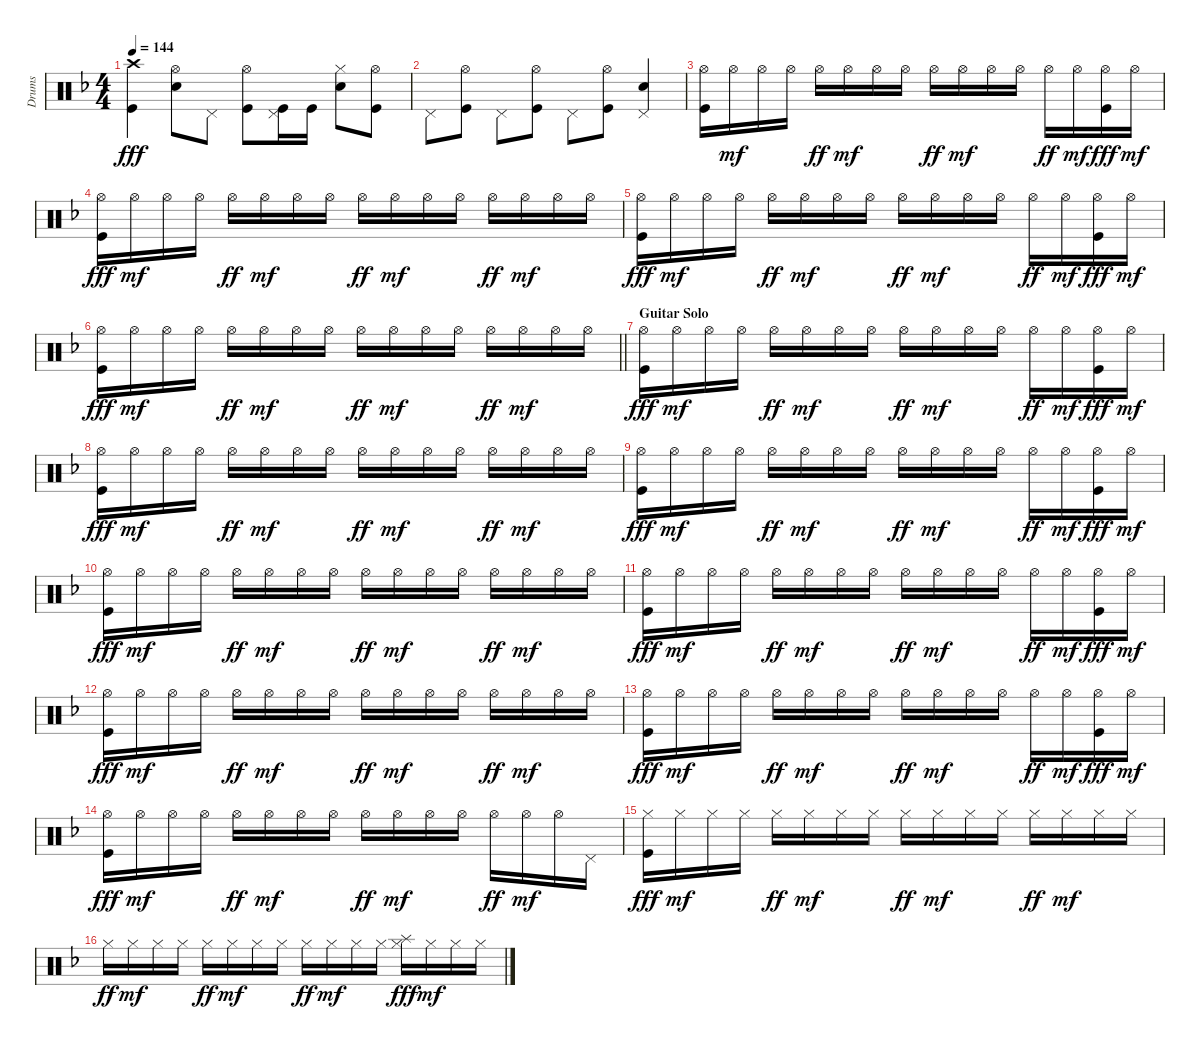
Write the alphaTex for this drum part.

\track ("Drums" "Drums") {instrument percussion}
\staff {score}
\articulation defaults
\ts (4 4)
\tempo 144
\clef neutral
\ks f
("Crash high (hit)" "Kick (hit)").4{dy fff} ("Hi-Hat (open)" "Snare (hit) 2").8 "Pedal Hi-Hat (hit)".8 ("Hi-Hat (open)" "Kick (hit)").8 ("Pedal Hi-Hat (hit)" "Kick (hit)").16 "Kick (hit)".16 ("Hi-Hat (closed)" "Snare (hit) 2").8 ("Hi-Hat (open)" "Kick (hit)").8 |
"Pedal Hi-Hat (hit)".8 ("Hi-Hat (open)" "Kick (hit)").8 "Pedal Hi-Hat (hit)".8 ("Hi-Hat (open)" "Kick (hit)").8 "Pedal Hi-Hat (hit)".8 ("Hi-Hat (open)" "Kick (hit)").8 ("Pedal Hi-Hat (hit)" "Snare (hit) 2").4 |
("Hi-Hat (open)" "Kick (hit)").16 "Hi-Hat (open)".16{dy mf} "Hi-Hat (open)".16 "Hi-Hat (open)".16 "Hi-Hat (open)".16{dy ff} "Hi-Hat (open)".16{dy mf} "Hi-Hat (open)".16 "Hi-Hat (open)".16 "Hi-Hat (open)".16{dy ff} "Hi-Hat (open)".16{dy mf} "Hi-Hat (open)".16 "Hi-Hat (open)".16 "Hi-Hat (open)".16{dy ff} "Hi-Hat (open)".16{dy mf} ("Hi-Hat (open)" "Kick (hit)").16{dy fff} "Hi-Hat (open)".16{dy mf} |
("Hi-Hat (open)" "Kick (hit)").16{dy fff} "Hi-Hat (open)".16{dy mf} "Hi-Hat (open)".16 "Hi-Hat (open)".16 "Hi-Hat (open)".16{dy ff} "Hi-Hat (open)".16{dy mf} "Hi-Hat (open)".16 "Hi-Hat (open)".16 "Hi-Hat (open)".16{dy ff} "Hi-Hat (open)".16{dy mf} "Hi-Hat (open)".16 "Hi-Hat (open)".16 "Hi-Hat (open)".16{dy ff} "Hi-Hat (open)".16{dy mf} "Hi-Hat (open)".16 "Hi-Hat (open)".16 |
("Hi-Hat (open)" "Kick (hit)").16{dy fff} "Hi-Hat (open)".16{dy mf} "Hi-Hat (open)".16 "Hi-Hat (open)".16 "Hi-Hat (open)".16{dy ff} "Hi-Hat (open)".16{dy mf} "Hi-Hat (open)".16 "Hi-Hat (open)".16 "Hi-Hat (open)".16{dy ff} "Hi-Hat (open)".16{dy mf} "Hi-Hat (open)".16 "Hi-Hat (open)".16 "Hi-Hat (open)".16{dy ff} "Hi-Hat (open)".16{dy mf} ("Hi-Hat (open)" "Kick (hit)").16{dy fff} "Hi-Hat (open)".16{dy mf} |
\barLineRight lightlight
("Hi-Hat (open)" "Kick (hit)").16{dy fff} "Hi-Hat (open)".16{dy mf} "Hi-Hat (open)".16 "Hi-Hat (open)".16 "Hi-Hat (open)".16{dy ff} "Hi-Hat (open)".16{dy mf} "Hi-Hat (open)".16 "Hi-Hat (open)".16 "Hi-Hat (open)".16{dy ff} "Hi-Hat (open)".16{dy mf} "Hi-Hat (open)".16 "Hi-Hat (open)".16 "Hi-Hat (open)".16{dy ff} "Hi-Hat (open)".16{dy mf} "Hi-Hat (open)".16 "Hi-Hat (open)".16 |
\section ("" "Guitar Solo")
("Hi-Hat (open)" "Kick (hit)").16{dy fff} "Hi-Hat (open)".16{dy mf} "Hi-Hat (open)".16 "Hi-Hat (open)".16 "Hi-Hat (open)".16{dy ff} "Hi-Hat (open)".16{dy mf} "Hi-Hat (open)".16 "Hi-Hat (open)".16 "Hi-Hat (open)".16{dy ff} "Hi-Hat (open)".16{dy mf} "Hi-Hat (open)".16 "Hi-Hat (open)".16 "Hi-Hat (open)".16{dy ff} "Hi-Hat (open)".16{dy mf} ("Hi-Hat (open)" "Kick (hit)").16{dy fff} "Hi-Hat (open)".16{dy mf} |
("Hi-Hat (open)" "Kick (hit)").16{dy fff} "Hi-Hat (open)".16{dy mf} "Hi-Hat (open)".16 "Hi-Hat (open)".16 "Hi-Hat (open)".16{dy ff} "Hi-Hat (open)".16{dy mf} "Hi-Hat (open)".16 "Hi-Hat (open)".16 "Hi-Hat (open)".16{dy ff} "Hi-Hat (open)".16{dy mf} "Hi-Hat (open)".16 "Hi-Hat (open)".16 "Hi-Hat (open)".16{dy ff} "Hi-Hat (open)".16{dy mf} "Hi-Hat (open)".16 "Hi-Hat (open)".16 |
("Hi-Hat (open)" "Kick (hit)").16{dy fff} "Hi-Hat (open)".16{dy mf} "Hi-Hat (open)".16 "Hi-Hat (open)".16 "Hi-Hat (open)".16{dy ff} "Hi-Hat (open)".16{dy mf} "Hi-Hat (open)".16 "Hi-Hat (open)".16 "Hi-Hat (open)".16{dy ff} "Hi-Hat (open)".16{dy mf} "Hi-Hat (open)".16 "Hi-Hat (open)".16 "Hi-Hat (open)".16{dy ff} "Hi-Hat (open)".16{dy mf} ("Hi-Hat (open)" "Kick (hit)").16{dy fff} "Hi-Hat (open)".16{dy mf} |
("Hi-Hat (open)" "Kick (hit)").16{dy fff} "Hi-Hat (open)".16{dy mf} "Hi-Hat (open)".16 "Hi-Hat (open)".16 "Hi-Hat (open)".16{dy ff} "Hi-Hat (open)".16{dy mf} "Hi-Hat (open)".16 "Hi-Hat (open)".16 "Hi-Hat (open)".16{dy ff} "Hi-Hat (open)".16{dy mf} "Hi-Hat (open)".16 "Hi-Hat (open)".16 "Hi-Hat (open)".16{dy ff} "Hi-Hat (open)".16{dy mf} "Hi-Hat (open)".16 "Hi-Hat (open)".16 |
("Hi-Hat (open)" "Kick (hit)").16{dy fff} "Hi-Hat (open)".16{dy mf} "Hi-Hat (open)".16 "Hi-Hat (open)".16 "Hi-Hat (open)".16{dy ff} "Hi-Hat (open)".16{dy mf} "Hi-Hat (open)".16 "Hi-Hat (open)".16 "Hi-Hat (open)".16{dy ff} "Hi-Hat (open)".16{dy mf} "Hi-Hat (open)".16 "Hi-Hat (open)".16 "Hi-Hat (open)".16{dy ff} "Hi-Hat (open)".16{dy mf} ("Hi-Hat (open)" "Kick (hit)").16{dy fff} "Hi-Hat (open)".16{dy mf} |
("Hi-Hat (open)" "Kick (hit)").16{dy fff} "Hi-Hat (open)".16{dy mf} "Hi-Hat (open)".16 "Hi-Hat (open)".16 "Hi-Hat (open)".16{dy ff} "Hi-Hat (open)".16{dy mf} "Hi-Hat (open)".16 "Hi-Hat (open)".16 "Hi-Hat (open)".16{dy ff} "Hi-Hat (open)".16{dy mf} "Hi-Hat (open)".16 "Hi-Hat (open)".16 "Hi-Hat (open)".16{dy ff} "Hi-Hat (open)".16{dy mf} "Hi-Hat (open)".16 "Hi-Hat (open)".16 |
("Hi-Hat (open)" "Kick (hit)").16{dy fff} "Hi-Hat (open)".16{dy mf} "Hi-Hat (open)".16 "Hi-Hat (open)".16 "Hi-Hat (open)".16{dy ff} "Hi-Hat (open)".16{dy mf} "Hi-Hat (open)".16 "Hi-Hat (open)".16 "Hi-Hat (open)".16{dy ff} "Hi-Hat (open)".16{dy mf} "Hi-Hat (open)".16 "Hi-Hat (open)".16 "Hi-Hat (open)".16{dy ff} "Hi-Hat (open)".16{dy mf} ("Hi-Hat (open)" "Kick (hit)").16{dy fff} "Hi-Hat (open)".16{dy mf} |
("Hi-Hat (open)" "Kick (hit)").16{dy fff} "Hi-Hat (open)".16{dy mf} "Hi-Hat (open)".16 "Hi-Hat (open)".16 "Hi-Hat (open)".16{dy ff} "Hi-Hat (open)".16{dy mf} "Hi-Hat (open)".16 "Hi-Hat (open)".16 "Hi-Hat (open)".16{dy ff} "Hi-Hat (open)".16{dy mf} "Hi-Hat (open)".16 "Hi-Hat (open)".16 "Hi-Hat (open)".16{dy ff} "Hi-Hat (open)".16{dy mf} "Hi-Hat (open)".16 "Pedal Hi-Hat (hit)".16 |
("Hi-Hat (closed)" "Kick (hit)").16{dy fff} "Hi-Hat (closed)".16{dy mf} "Hi-Hat (closed)".16 "Hi-Hat (closed)".16 "Hi-Hat (closed)".16{dy ff} "Hi-Hat (closed)".16{dy mf} "Hi-Hat (closed)".16 "Hi-Hat (closed)".16 "Hi-Hat (closed)".16{dy ff} "Hi-Hat (closed)".16{dy mf} "Hi-Hat (closed)".16 "Hi-Hat (closed)".16 "Hi-Hat (closed)".16{dy ff} "Hi-Hat (closed)".16{dy mf} "Hi-Hat (closed)".16 "Hi-Hat (closed)".16 |
"Hi-Hat (closed)".16{dy ff} "Hi-Hat (closed)".16{dy mf} "Hi-Hat (closed)".16 "Hi-Hat (closed)".16 "Hi-Hat (closed)".16{dy ff} "Hi-Hat (closed)".16{dy mf} "Hi-Hat (closed)".16 "Hi-Hat (closed)".16 "Hi-Hat (closed)".16{dy ff} "Hi-Hat (closed)".16{dy mf} "Hi-Hat (closed)".16 "Hi-Hat (closed)".16 ("Hi-Hat (closed)" "Splash (hit)").16{dy fff} "Hi-Hat (closed)".16{dy mf} "Hi-Hat (closed)".16 "Hi-Hat (closed)".16
